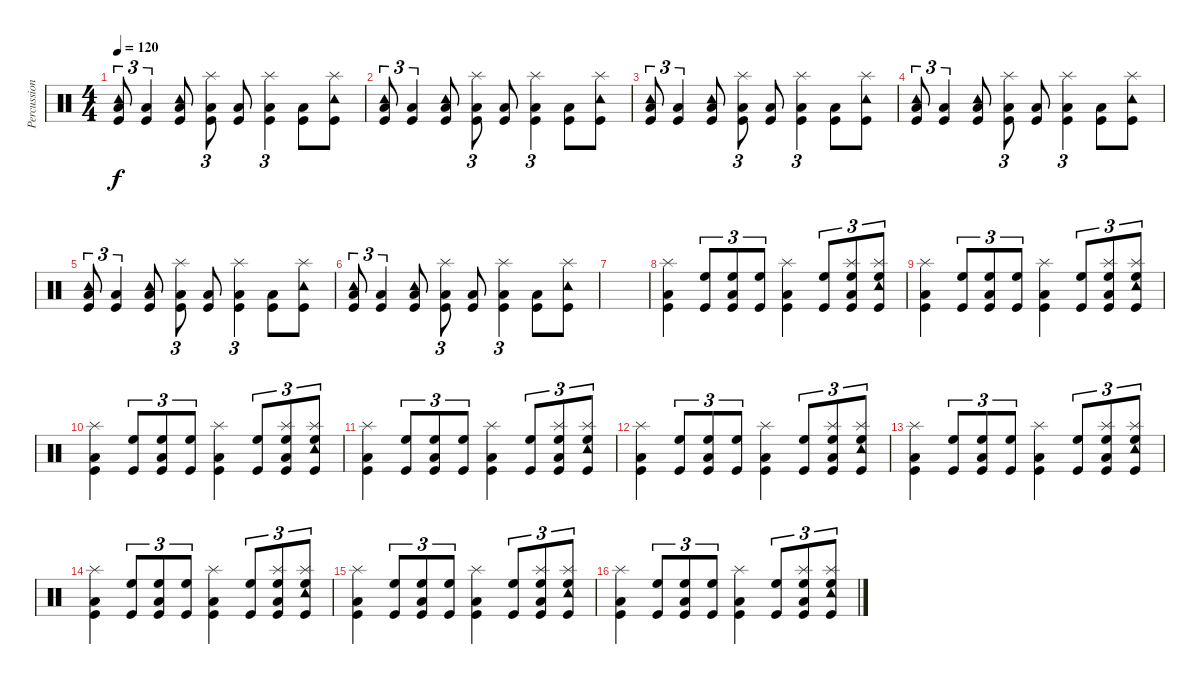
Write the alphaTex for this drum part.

\track ("Percussion" "Percussion") {instrument percussion}
\staff {score}
\articulation defaults
\ts (4 4)
\tempo 120
\clef neutral
\ks c
("Tambourine (hit)" "Low Tom (hit)" "Kick (hit)").8{tu (3 2) dy f} ("Low Tom (hit)" "Kick (hit)").4{tu (3 2)} ("Low Tom (hit)" "Tambourine (hit)" "Kick (hit)").8 ("Low Tom (hit)" "Splash (hit)" "Kick (hit)").8{tu (3 2)} ("Low Tom (hit)" "Kick (hit)").8 ("Splash (hit)" "Low Tom (hit)" "Kick (hit)").4{tu (3 2)} ("Low Tom (hit)" "Kick (hit)").8 ("Splash (hit)" "Tambourine (hit)" "Kick (hit)").8 |
("Tambourine (hit)" "Low Tom (hit)" "Kick (hit)").8{tu (3 2)} ("Low Tom (hit)" "Kick (hit)").4{tu (3 2)} ("Low Tom (hit)" "Tambourine (hit)" "Kick (hit)").8 ("Low Tom (hit)" "Splash (hit)" "Kick (hit)").8{tu (3 2)} ("Low Tom (hit)" "Kick (hit)").8 ("Splash (hit)" "Low Tom (hit)" "Kick (hit)").4{tu (3 2)} ("Low Tom (hit)" "Kick (hit)").8 ("Splash (hit)" "Tambourine (hit)" "Kick (hit)").8 |
("Tambourine (hit)" "Low Tom (hit)" "Kick (hit)").8{tu (3 2)} ("Low Tom (hit)" "Kick (hit)").4{tu (3 2)} ("Low Tom (hit)" "Tambourine (hit)" "Kick (hit)").8 ("Low Tom (hit)" "Splash (hit)" "Kick (hit)").8{tu (3 2)} ("Low Tom (hit)" "Kick (hit)").8 ("Splash (hit)" "Low Tom (hit)" "Kick (hit)").4{tu (3 2)} ("Low Tom (hit)" "Kick (hit)").8 ("Splash (hit)" "Tambourine (hit)" "Kick (hit)").8 |
("Tambourine (hit)" "Low Tom (hit)" "Kick (hit)").8{tu (3 2)} ("Low Tom (hit)" "Kick (hit)").4{tu (3 2)} ("Low Tom (hit)" "Tambourine (hit)" "Kick (hit)").8 ("Low Tom (hit)" "Splash (hit)" "Kick (hit)").8{tu (3 2)} ("Low Tom (hit)" "Kick (hit)").8 ("Splash (hit)" "Low Tom (hit)" "Kick (hit)").4{tu (3 2)} ("Low Tom (hit)" "Kick (hit)").8 ("Splash (hit)" "Tambourine (hit)" "Kick (hit)").8 |
("Tambourine (hit)" "Low Tom (hit)" "Kick (hit)").8{tu (3 2)} ("Low Tom (hit)" "Kick (hit)").4{tu (3 2)} ("Low Tom (hit)" "Tambourine (hit)" "Kick (hit)").8 ("Low Tom (hit)" "Splash (hit)" "Kick (hit)").8{tu (3 2)} ("Low Tom (hit)" "Kick (hit)").8 ("Splash (hit)" "Low Tom (hit)" "Kick (hit)").4{tu (3 2)} ("Low Tom (hit)" "Kick (hit)").8 ("Splash (hit)" "Tambourine (hit)" "Kick (hit)").8 |
("Tambourine (hit)" "Low Tom (hit)" "Kick (hit)").8{tu (3 2)} ("Low Tom (hit)" "Kick (hit)").4{tu (3 2)} ("Low Tom (hit)" "Tambourine (hit)" "Kick (hit)").8 ("Low Tom (hit)" "Splash (hit)" "Kick (hit)").8{tu (3 2)} ("Low Tom (hit)" "Kick (hit)").8 ("Splash (hit)" "Low Tom (hit)" "Kick (hit)").4{tu (3 2)} ("Low Tom (hit)" "Kick (hit)").8 ("Splash (hit)" "Tambourine (hit)" "Kick (hit)").8 |
|
("Low Tom (hit)" "Splash (hit)" "Kick (hit)").4 ("High Floor Tom (hit)" "Kick (hit)").8{tu (3 2)} ("Low Tom (hit)" "High Floor Tom (hit)" "Kick (hit)").8{tu (3 2)} ("High Floor Tom (hit)" "Kick (hit)").8{tu (3 2)} ("Splash (hit)" "Low Tom (hit)" "Kick (hit)").4 ("High Floor Tom (hit)" "Kick (hit)").8{tu (3 2)} ("Splash (hit)" "Low Tom (hit)" "High Floor Tom (hit)" "Kick (hit)").8{tu (3 2)} ("Tambourine (hit)" "High Floor Tom (hit)" "Splash (hit)" "Kick (hit)").8{tu (3 2)} |
("Low Tom (hit)" "Splash (hit)" "Kick (hit)").4 ("High Floor Tom (hit)" "Kick (hit)").8{tu (3 2)} ("Low Tom (hit)" "High Floor Tom (hit)" "Kick (hit)").8{tu (3 2)} ("High Floor Tom (hit)" "Kick (hit)").8{tu (3 2)} ("Splash (hit)" "Low Tom (hit)" "Kick (hit)").4 ("High Floor Tom (hit)" "Kick (hit)").8{tu (3 2)} ("Splash (hit)" "Low Tom (hit)" "High Floor Tom (hit)" "Kick (hit)").8{tu (3 2)} ("Tambourine (hit)" "High Floor Tom (hit)" "Splash (hit)" "Kick (hit)").8{tu (3 2)} |
("Low Tom (hit)" "Splash (hit)" "Kick (hit)").4 ("High Floor Tom (hit)" "Kick (hit)").8{tu (3 2)} ("Low Tom (hit)" "High Floor Tom (hit)" "Kick (hit)").8{tu (3 2)} ("High Floor Tom (hit)" "Kick (hit)").8{tu (3 2)} ("Splash (hit)" "Low Tom (hit)" "Kick (hit)").4 ("High Floor Tom (hit)" "Kick (hit)").8{tu (3 2)} ("Splash (hit)" "Low Tom (hit)" "High Floor Tom (hit)" "Kick (hit)").8{tu (3 2)} ("Tambourine (hit)" "High Floor Tom (hit)" "Splash (hit)" "Kick (hit)").8{tu (3 2)} |
("Low Tom (hit)" "Splash (hit)" "Kick (hit)").4 ("High Floor Tom (hit)" "Kick (hit)").8{tu (3 2)} ("Low Tom (hit)" "High Floor Tom (hit)" "Kick (hit)").8{tu (3 2)} ("High Floor Tom (hit)" "Kick (hit)").8{tu (3 2)} ("Splash (hit)" "Low Tom (hit)" "Kick (hit)").4 ("High Floor Tom (hit)" "Kick (hit)").8{tu (3 2)} ("Splash (hit)" "Low Tom (hit)" "High Floor Tom (hit)" "Kick (hit)").8{tu (3 2)} ("Tambourine (hit)" "High Floor Tom (hit)" "Splash (hit)" "Kick (hit)").8{tu (3 2)} |
("Low Tom (hit)" "Splash (hit)" "Kick (hit)").4 ("High Floor Tom (hit)" "Kick (hit)").8{tu (3 2)} ("Low Tom (hit)" "High Floor Tom (hit)" "Kick (hit)").8{tu (3 2)} ("High Floor Tom (hit)" "Kick (hit)").8{tu (3 2)} ("Splash (hit)" "Low Tom (hit)" "Kick (hit)").4 ("High Floor Tom (hit)" "Kick (hit)").8{tu (3 2)} ("Splash (hit)" "Low Tom (hit)" "High Floor Tom (hit)" "Kick (hit)").8{tu (3 2)} ("Tambourine (hit)" "High Floor Tom (hit)" "Splash (hit)" "Kick (hit)").8{tu (3 2)} |
("Low Tom (hit)" "Splash (hit)" "Kick (hit)").4 ("High Floor Tom (hit)" "Kick (hit)").8{tu (3 2)} ("Low Tom (hit)" "High Floor Tom (hit)" "Kick (hit)").8{tu (3 2)} ("High Floor Tom (hit)" "Kick (hit)").8{tu (3 2)} ("Splash (hit)" "Low Tom (hit)" "Kick (hit)").4 ("High Floor Tom (hit)" "Kick (hit)").8{tu (3 2)} ("Splash (hit)" "Low Tom (hit)" "High Floor Tom (hit)" "Kick (hit)").8{tu (3 2)} ("Tambourine (hit)" "High Floor Tom (hit)" "Splash (hit)" "Kick (hit)").8{tu (3 2)} |
("Low Tom (hit)" "Splash (hit)" "Kick (hit)").4 ("High Floor Tom (hit)" "Kick (hit)").8{tu (3 2)} ("Low Tom (hit)" "High Floor Tom (hit)" "Kick (hit)").8{tu (3 2)} ("High Floor Tom (hit)" "Kick (hit)").8{tu (3 2)} ("Splash (hit)" "Low Tom (hit)" "Kick (hit)").4 ("High Floor Tom (hit)" "Kick (hit)").8{tu (3 2)} ("Splash (hit)" "Low Tom (hit)" "High Floor Tom (hit)" "Kick (hit)").8{tu (3 2)} ("Tambourine (hit)" "High Floor Tom (hit)" "Splash (hit)" "Kick (hit)").8{tu (3 2)} |
("Low Tom (hit)" "Splash (hit)" "Kick (hit)").4 ("High Floor Tom (hit)" "Kick (hit)").8{tu (3 2)} ("Low Tom (hit)" "High Floor Tom (hit)" "Kick (hit)").8{tu (3 2)} ("High Floor Tom (hit)" "Kick (hit)").8{tu (3 2)} ("Splash (hit)" "Low Tom (hit)" "Kick (hit)").4 ("High Floor Tom (hit)" "Kick (hit)").8{tu (3 2)} ("Splash (hit)" "Low Tom (hit)" "High Floor Tom (hit)" "Kick (hit)").8{tu (3 2)} ("Tambourine (hit)" "High Floor Tom (hit)" "Splash (hit)" "Kick (hit)").8{tu (3 2)} |
("Low Tom (hit)" "Splash (hit)" "Kick (hit)").4 ("High Floor Tom (hit)" "Kick (hit)").8{tu (3 2)} ("Low Tom (hit)" "High Floor Tom (hit)" "Kick (hit)").8{tu (3 2)} ("High Floor Tom (hit)" "Kick (hit)").8{tu (3 2)} ("Splash (hit)" "Low Tom (hit)" "Kick (hit)").4 ("High Floor Tom (hit)" "Kick (hit)").8{tu (3 2)} ("Splash (hit)" "Low Tom (hit)" "High Floor Tom (hit)" "Kick (hit)").8{tu (3 2)} ("Tambourine (hit)" "High Floor Tom (hit)" "Splash (hit)" "Kick (hit)").8{tu (3 2)}
